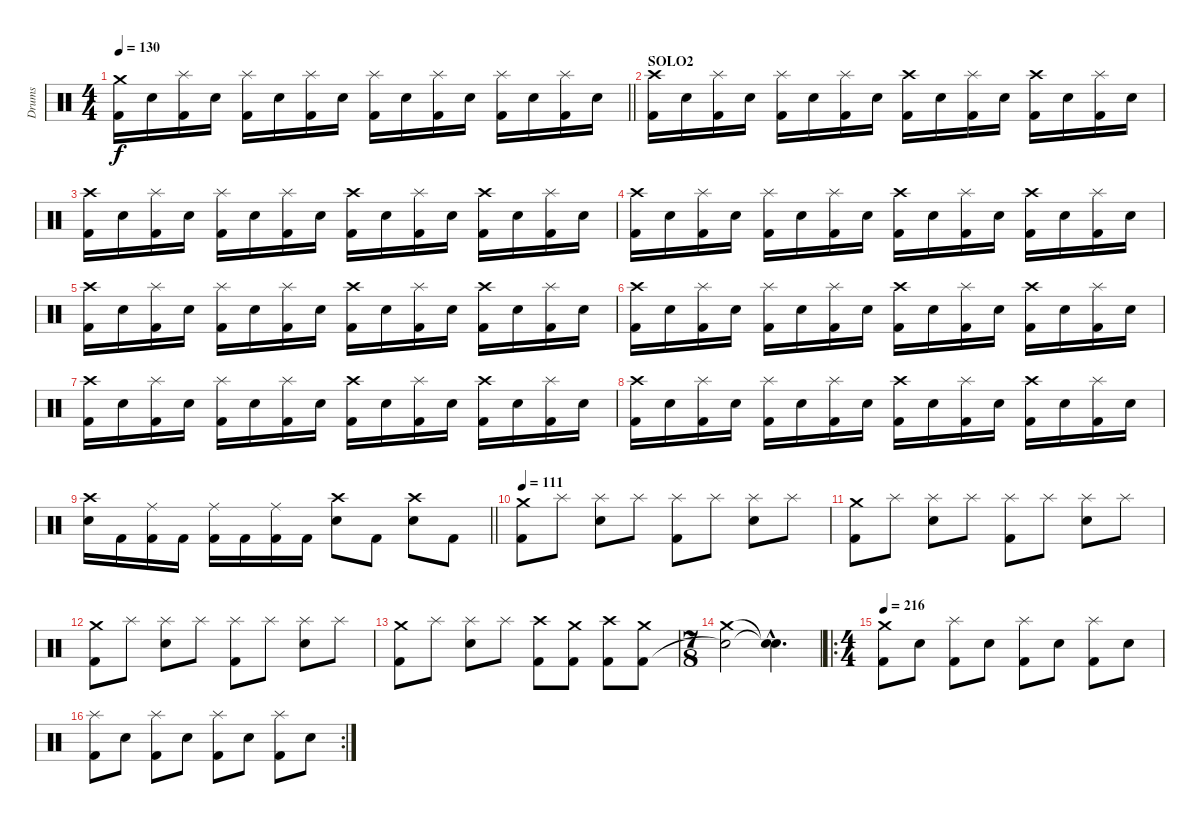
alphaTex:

\track ("Drums" "Drums") {instrument percussion}
\staff {score}
\articulation defaults
\ts (4 4)
\tempo 130
\clef neutral
\barLineRight lightlight
\ks c
("Crash medium (hit)" "Kick (hit) 2").16{dy f} "Snare (hit) 2".16 ("Splash (hit)" "Kick (hit) 2").16 "Snare (hit) 2".16 ("Splash (hit)" "Kick (hit) 2").16 "Snare (hit) 2".16 ("Splash (hit)" "Kick (hit) 2").16 "Snare (hit) 2".16 ("Splash (hit)" "Kick (hit) 2").16 "Snare (hit) 2".16 ("Splash (hit)" "Kick (hit) 2").16 "Snare (hit) 2".16 ("Splash (hit)" "Kick (hit) 2").16 "Snare (hit) 2".16 ("Splash (hit)" "Kick (hit) 2").16 "Snare (hit) 2".16 |
\section ("" "SOLO2")
("Crash high (hit)" "Kick (hit) 2").16 "Snare (hit) 2".16 ("Splash (hit)" "Kick (hit) 2").16 "Snare (hit) 2".16 ("Splash (hit)" "Kick (hit) 2").16 "Snare (hit) 2".16 ("Splash (hit)" "Kick (hit) 2").16 "Snare (hit) 2".16 ("Crash high (hit)" "Kick (hit) 2").16 "Snare (hit) 2".16 ("Splash (hit)" "Kick (hit) 2").16 "Snare (hit) 2".16 ("Crash high (hit)" "Kick (hit) 2").16 "Snare (hit) 2".16 ("Splash (hit)" "Kick (hit) 2").16 "Snare (hit) 2".16 |
("Crash high (hit)" "Kick (hit) 2").16 "Snare (hit) 2".16 ("Splash (hit)" "Kick (hit) 2").16 "Snare (hit) 2".16 ("Splash (hit)" "Kick (hit) 2").16 "Snare (hit) 2".16 ("Splash (hit)" "Kick (hit) 2").16 "Snare (hit) 2".16 ("Crash high (hit)" "Kick (hit) 2").16 "Snare (hit) 2".16 ("Splash (hit)" "Kick (hit) 2").16 "Snare (hit) 2".16 ("Crash high (hit)" "Kick (hit) 2").16 "Snare (hit) 2".16 ("Splash (hit)" "Kick (hit) 2").16 "Snare (hit) 2".16 |
("Crash high (hit)" "Kick (hit) 2").16 "Snare (hit) 2".16 ("Splash (hit)" "Kick (hit) 2").16 "Snare (hit) 2".16 ("Splash (hit)" "Kick (hit) 2").16 "Snare (hit) 2".16 ("Splash (hit)" "Kick (hit) 2").16 "Snare (hit) 2".16 ("Crash high (hit)" "Kick (hit) 2").16 "Snare (hit) 2".16 ("Splash (hit)" "Kick (hit) 2").16 "Snare (hit) 2".16 ("Crash high (hit)" "Kick (hit) 2").16 "Snare (hit) 2".16 ("Splash (hit)" "Kick (hit) 2").16 "Snare (hit) 2".16 |
("Crash high (hit)" "Kick (hit) 2").16 "Snare (hit) 2".16 ("Splash (hit)" "Kick (hit) 2").16 "Snare (hit) 2".16 ("Splash (hit)" "Kick (hit) 2").16 "Snare (hit) 2".16 ("Splash (hit)" "Kick (hit) 2").16 "Snare (hit) 2".16 ("Crash high (hit)" "Kick (hit) 2").16 "Snare (hit) 2".16 ("Splash (hit)" "Kick (hit) 2").16 "Snare (hit) 2".16 ("Crash high (hit)" "Kick (hit) 2").16 "Snare (hit) 2".16 ("Splash (hit)" "Kick (hit) 2").16 "Snare (hit) 2".16 |
("Crash high (hit)" "Kick (hit) 2").16 "Snare (hit) 2".16 ("Splash (hit)" "Kick (hit) 2").16 "Snare (hit) 2".16 ("Splash (hit)" "Kick (hit) 2").16 "Snare (hit) 2".16 ("Splash (hit)" "Kick (hit) 2").16 "Snare (hit) 2".16 ("Crash high (hit)" "Kick (hit) 2").16 "Snare (hit) 2".16 ("Splash (hit)" "Kick (hit) 2").16 "Snare (hit) 2".16 ("Crash high (hit)" "Kick (hit) 2").16 "Snare (hit) 2".16 ("Splash (hit)" "Kick (hit) 2").16 "Snare (hit) 2".16 |
("Crash high (hit)" "Kick (hit) 2").16 "Snare (hit) 2".16 ("Splash (hit)" "Kick (hit) 2").16 "Snare (hit) 2".16 ("Splash (hit)" "Kick (hit) 2").16 "Snare (hit) 2".16 ("Splash (hit)" "Kick (hit) 2").16 "Snare (hit) 2".16 ("Crash high (hit)" "Kick (hit) 2").16 "Snare (hit) 2".16 ("Splash (hit)" "Kick (hit) 2").16 "Snare (hit) 2".16 ("Crash high (hit)" "Kick (hit) 2").16 "Snare (hit) 2".16 ("Splash (hit)" "Kick (hit) 2").16 "Snare (hit) 2".16 |
("Crash high (hit)" "Kick (hit) 2").16 "Snare (hit) 2".16 ("Splash (hit)" "Kick (hit) 2").16 "Snare (hit) 2".16 ("Splash (hit)" "Kick (hit) 2").16 "Snare (hit) 2".16 ("Splash (hit)" "Kick (hit) 2").16 "Snare (hit) 2".16 ("Crash high (hit)" "Kick (hit) 2").16 "Snare (hit) 2".16 ("Splash (hit)" "Kick (hit) 2").16 "Snare (hit) 2".16 ("Crash high (hit)" "Kick (hit) 2").16 "Snare (hit) 2".16 ("Splash (hit)" "Kick (hit) 2").16 "Snare (hit) 2".16 |
\barLineRight lightlight
("Crash high (hit)" "Snare (hit) 2").16 "Kick (hit) 2".16 ("Ride (middle)" "Kick (hit) 2").16 "Kick (hit) 2".16 ("Ride (middle)" "Kick (hit) 2").16 "Kick (hit) 2".16 ("Ride (middle)" "Kick (hit) 2").16 "Kick (hit) 2".16 ("Crash high (hit)" "Snare (hit) 2").8 "Kick (hit) 2".8 ("Crash high (hit)" "Snare (hit) 2").8 "Kick (hit) 2".8 |
\tempo 111
("Crash medium (hit)" "Kick (hit) 2").8 "Splash (hit)".8 ("Splash (hit)" "Snare (hit) 2").8 "Splash (hit)".8 ("Splash (hit)" "Kick (hit) 2").8 "Splash (hit)".8 ("Splash (hit)" "Snare (hit) 2").8 "Splash (hit)".8 |
("Crash medium (hit)" "Kick (hit) 2").8 "Splash (hit)".8 ("Splash (hit)" "Snare (hit) 2").8 "Splash (hit)".8 ("Splash (hit)" "Kick (hit) 2").8 "Splash (hit)".8 ("Splash (hit)" "Snare (hit) 2").8 "Splash (hit)".8 |
("Crash medium (hit)" "Kick (hit) 2").8 "Splash (hit)".8 ("Splash (hit)" "Snare (hit) 2").8 "Splash (hit)".8 ("Splash (hit)" "Kick (hit) 2").8 "Splash (hit)".8 ("Splash (hit)" "Snare (hit) 2").8 "Splash (hit)".8 |
("Crash medium (hit)" "Kick (hit) 2").8 "Splash (hit)".8 ("Splash (hit)" "Snare (hit) 2").8 "Splash (hit)".8 ("Crash high (hit)" "Kick (hit) 2").8 ("Crash medium (hit)" "Kick (hit) 2").8 ("Crash high (hit)" "Kick (hit) 2").8 ("Crash medium (hit)" "Kick (hit) 2").8 |
\ts (7 8)
("Crash medium (hit)" "Snare (hit)"{t}).2 ("Snare (hit)"{hac t} "Snare (hit)"{hac t}).4{d} |
\ro
\ts (4 4)
\tempo 216
("Crash medium (hit)" "Kick (hit) 2").8 "Snare (hit) 2".8 ("Splash (hit)" "Kick (hit) 2").8 "Snare (hit) 2".8 ("Splash (hit)" "Kick (hit) 2").8 "Snare (hit) 2".8 ("Splash (hit)" "Kick (hit) 2").8 "Snare (hit) 2".8 |
\rc 2
("Splash (hit)" "Kick (hit) 2").8 "Snare (hit) 2".8 ("Splash (hit)" "Kick (hit) 2").8 "Snare (hit) 2".8 ("Splash (hit)" "Kick (hit) 2").8 "Snare (hit) 2".8 ("Splash (hit)" "Kick (hit) 2").8 "Snare (hit) 2".8
